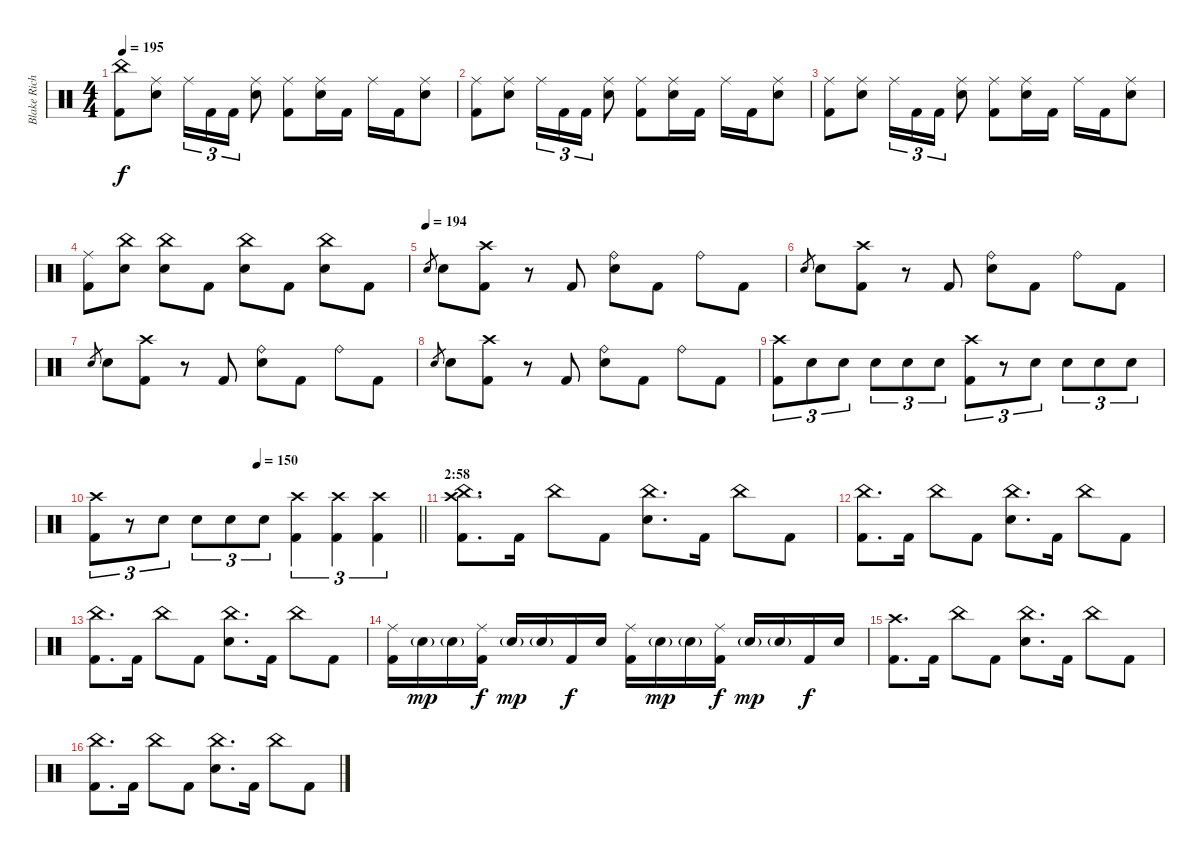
\track ("Blake Richardson" "Blake Rich") {instrument percussion}
\staff {score}
\articulation defaults
\ts (4 4)
\tempo 195
\clef neutral
\ks c
("China (hit)" "Kick (hit) 2").8{dy f} ("Ride (middle)" "Electric Snare (hit)").8 "Ride (middle)".16{tu (3 2)} "Kick (hit) 2".16{tu (3 2)} "Kick (hit) 2".16{tu (3 2)} ("Ride (middle)" "Electric Snare (hit)").8 ("Ride (middle)" "Kick (hit) 2").8 ("Ride (middle)" "Electric Snare (hit)").16 "Kick (hit) 2".16 "Ride (middle)".16 "Kick (hit) 2".16 ("Ride (middle)" "Electric Snare (hit)").8 |
("Ride (middle)" "Kick (hit) 2").8 ("Ride (middle)" "Electric Snare (hit)").8 "Ride (middle)".16{tu (3 2)} "Kick (hit) 2".16{tu (3 2)} "Kick (hit) 2".16{tu (3 2)} ("Ride (middle)" "Electric Snare (hit)").8 ("Ride (middle)" "Kick (hit) 2").8 ("Ride (middle)" "Electric Snare (hit)").16 "Kick (hit) 2".16 "Ride (middle)".16 "Kick (hit) 2".16 ("Ride (middle)" "Electric Snare (hit)").8 |
("Ride (middle)" "Kick (hit) 2").8 ("Ride (middle)" "Electric Snare (hit)").8 "Ride (middle)".16{tu (3 2)} "Kick (hit) 2".16{tu (3 2)} "Kick (hit) 2".16{tu (3 2)} ("Ride (middle)" "Electric Snare (hit)").8 ("Ride (middle)" "Kick (hit) 2").8 ("Ride (middle)" "Electric Snare (hit)").16 "Kick (hit) 2".16 "Ride (middle)".16 "Kick (hit) 2".16 ("Ride (middle)" "Electric Snare (hit)").8 |
("Ride (middle)" "Kick (hit) 2").8 ("China (hit)" "Electric Snare (hit)").8 ("China (hit)" "Electric Snare (hit)").8 "Kick (hit) 2".8 ("China (hit)" "Electric Snare (hit)").8 "Kick (hit) 2".8 ("China (hit)" "Electric Snare (hit)").8 "Kick (hit) 2".8 |
\tempo (194)
"Electric Snare (hit)".8{gr} "Electric Snare (hit)".8 ("Crash high (hit)" "Kick (hit) 2").8 r.8 "Kick (hit) 2".8 ("Ride (bell)" "Electric Snare (hit)").8 "Kick (hit) 2".8 "Ride (bell)".8 "Kick (hit) 2".8 |
"Electric Snare (hit)".8{gr} "Electric Snare (hit)".8 ("Crash high (hit)" "Kick (hit) 2").8 r.8 "Kick (hit) 2".8 ("Ride (bell)" "Electric Snare (hit)").8 "Kick (hit) 2".8 "Ride (bell)".8 "Kick (hit) 2".8 |
"Electric Snare (hit)".8{gr} "Electric Snare (hit)".8 ("Crash high (hit)" "Kick (hit) 2").8 r.8 "Kick (hit) 2".8 ("Ride (bell)" "Electric Snare (hit)").8 "Kick (hit) 2".8 "Ride (bell)".8 "Kick (hit) 2".8 |
"Electric Snare (hit)".8{gr} "Electric Snare (hit)".8 ("Crash high (hit)" "Kick (hit) 2").8 r.8 "Kick (hit) 2".8 ("Ride (bell)" "Electric Snare (hit)").8 "Kick (hit) 2".8 "Ride (bell)".8 "Kick (hit) 2".8 |
("Crash high (hit)" "Kick (hit) 2").8{tu (3 2)} "Electric Snare (hit)".8{tu (3 2)} "Electric Snare (hit)".8{tu (3 2)} "Electric Snare (hit)".8{tu (3 2)} "Electric Snare (hit)".8{tu (3 2)} "Electric Snare (hit)".8{tu (3 2)} ("Crash high (hit)" "Kick (hit) 2").8{tu (3 2)} r.8{tu (3 2)} "Electric Snare (hit)".8{tu (3 2)} "Electric Snare (hit)".8{tu (3 2)} "Electric Snare (hit)".8{tu (3 2)} "Electric Snare (hit)".8{tu (3 2)} |
\tempo (150 0.5)
\barLineRight lightlight
("Crash high (hit)" "Kick (hit) 2").8{tu (3 2)} r.8{tu (3 2)} "Electric Snare (hit)".8{tu (3 2)} "Electric Snare (hit)".8{tu (3 2)} "Electric Snare (hit)".8{tu (3 2)} "Electric Snare (hit)".8{tu (3 2)} ("Crash high (hit)" "Kick (hit) 2").4{tu (3 2)} ("Crash high (hit)" "Kick (hit) 2").4{tu (3 2)} ("Crash high (hit)" "Kick (hit) 2").4{tu (3 2)} |
\section ("" "2:58")
("China (hit)" "Crash high (hit)" "Kick (hit) 2").8{d} "Kick (hit) 2".16 "China (hit)".8 "Kick (hit) 2".8 ("China (hit)" "Electric Snare (hit)").8{d} "Kick (hit) 2".16 "China (hit)".8 "Kick (hit) 2".8 |
("China (hit)" "Kick (hit) 2").8{d} "Kick (hit) 2".16 "China (hit)".8 "Kick (hit) 2".8 ("China (hit)" "Electric Snare (hit)").8{d} "Kick (hit) 2".16 "China (hit)".8 "Kick (hit) 2".8 |
("China (hit)" "Kick (hit) 2").8{d} "Kick (hit) 2".16 "China (hit)".8 "Kick (hit) 2".8 ("China (hit)" "Electric Snare (hit)").8{d} "Kick (hit) 2".16 "China (hit)".8 "Kick (hit) 2".8 |
("Ride (middle)" "Kick (hit) 2").16 "Electric Snare (hit)"{g}.16{dy mp} "Electric Snare (hit)"{g}.16 ("Ride (middle)" "Kick (hit) 2").16{dy f} "Electric Snare (hit)"{g}.16{dy mp} "Electric Snare (hit)"{g}.16 "Kick (hit) 2".16{dy f} "Electric Snare (hit)".16 ("Ride (middle)" "Kick (hit) 2").16 "Electric Snare (hit)"{g}.16{dy mp} "Electric Snare (hit)"{g}.16 ("Ride (middle)" "Kick (hit) 2").16{dy f} "Electric Snare (hit)"{g}.16{dy mp} "Electric Snare (hit)"{g}.16 "Kick (hit) 2".16{dy f} "Electric Snare (hit)".16 |
("Crash high (hit)" "Kick (hit) 2").8{d} "Kick (hit) 2".16 "China (hit)".8 "Kick (hit) 2".8 ("China (hit)" "Electric Snare (hit)").8{d} "Kick (hit) 2".16 "China (hit)".8 "Kick (hit) 2".8 |
("China (hit)" "Kick (hit) 2").8{d} "Kick (hit) 2".16 "China (hit)".8 "Kick (hit) 2".8 ("China (hit)" "Electric Snare (hit)").8{d} "Kick (hit) 2".16 "China (hit)".8 "Kick (hit) 2".8
